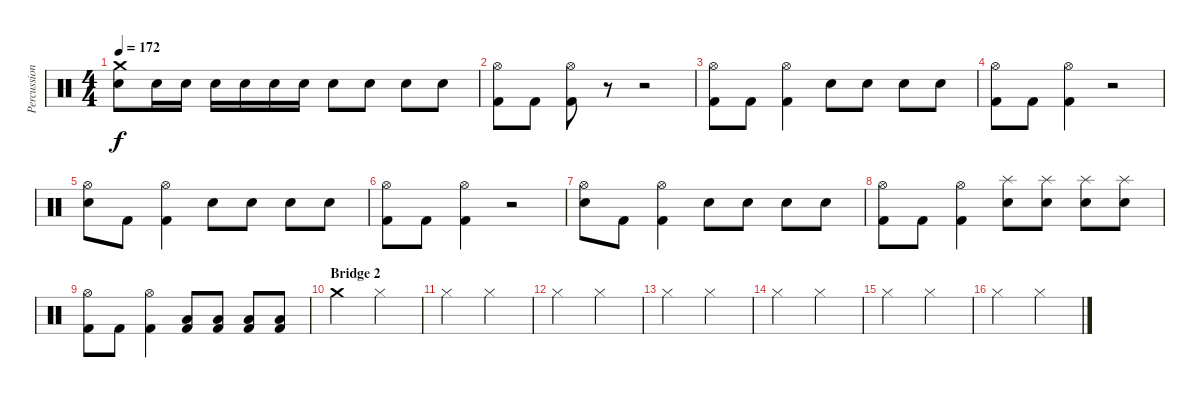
\track ("Percussion" "Percussion") {instrument percussion}
\staff {score}
\articulation defaults
\ts (4 4)
\tempo 172
\clef neutral
\ks c
("Crash medium (hit)" "Electric Snare (hit)").8{dy f} "Electric Snare (hit)".16 "Electric Snare (hit)".16 "Electric Snare (hit)".16 "Electric Snare (hit)".16 "Electric Snare (hit)".16 "Electric Snare (hit)".16 "Electric Snare (hit)".8 "Electric Snare (hit)".8 "Electric Snare (hit)".8 "Electric Snare (hit)".8 |
("Hi-Hat (open)" "Kick (hit) 2").8 "Kick (hit) 2".8 ("Hi-Hat (open)" "Kick (hit) 2").8 r.8 r.2 |
("Hi-Hat (open)" "Kick (hit) 2").8 "Kick (hit) 2".8 ("Hi-Hat (open)" "Kick (hit) 2").4 "Electric Snare (hit)".8 "Electric Snare (hit)".8 "Electric Snare (hit)".8 "Electric Snare (hit)".8 |
("Hi-Hat (open)" "Kick (hit) 2").8 "Kick (hit) 2".8 ("Hi-Hat (open)" "Kick (hit) 2").4 r.2 |
("Hi-Hat (open)" "Electric Snare (hit)").8 "Kick (hit) 2".8 ("Hi-Hat (open)" "Kick (hit) 2").4 "Electric Snare (hit)".8 "Electric Snare (hit)".8 "Electric Snare (hit)".8 "Electric Snare (hit)".8 |
("Hi-Hat (open)" "Kick (hit) 2").8 "Kick (hit) 2".8 ("Hi-Hat (open)" "Kick (hit) 2").4 r.2 |
("Hi-Hat (open)" "Electric Snare (hit)").8 "Kick (hit) 2".8 ("Hi-Hat (open)" "Kick (hit) 2").4 "Electric Snare (hit)".8 "Electric Snare (hit)".8 "Electric Snare (hit)".8 "Electric Snare (hit)".8 |
("Hi-Hat (open)" "Kick (hit) 2").8 "Kick (hit) 2".8 ("Hi-Hat (open)" "Kick (hit) 2").4 ("Splash (hit)" "Electric Snare (hit)").8 ("Splash (hit)" "Electric Snare (hit)").8 ("Splash (hit)" "Electric Snare (hit)").8 ("Splash (hit)" "Electric Snare (hit)").8 |
("Hi-Hat (open)" "Kick (hit) 2").8 "Kick (hit) 2".8 ("Hi-Hat (open)" "Kick (hit) 2").4 ("Low Floor Tom (hit)" "Kick (hit) 2").8 ("Low Floor Tom (hit)" "Kick (hit) 2").8 ("Low Floor Tom (hit)" "Kick (hit) 2").8 ("Low Floor Tom (hit)" "Kick (hit) 2").8 |
\section ("" "Bridge 2")
"Crash medium (hit)".2 "Hi-Hat (closed)".2 |
"Hi-Hat (closed)".2 "Hi-Hat (closed)".2 |
"Hi-Hat (closed)".2 "Hi-Hat (closed)".2 |
"Hi-Hat (closed)".2 "Hi-Hat (closed)".2 |
"Hi-Hat (closed)".2 "Hi-Hat (closed)".2 |
"Hi-Hat (closed)".2 "Hi-Hat (closed)".2 |
"Hi-Hat (closed)".2 "Hi-Hat (closed)".2
